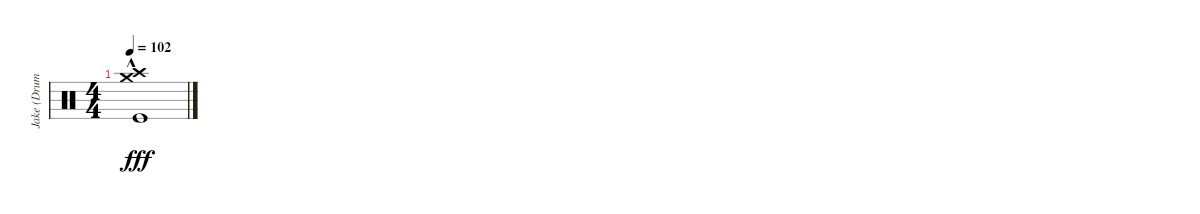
\track ("Jake (Drums)" "Jake (Drum") {instrument percussion}
\staff {score}
\articulation defaults
\ts (4 4)
\tempo 102
\clef neutral
\ks c
("Crash high (hit)"{hac} "Crash medium (hit)" "Kick (hit)").1{dy fff}
